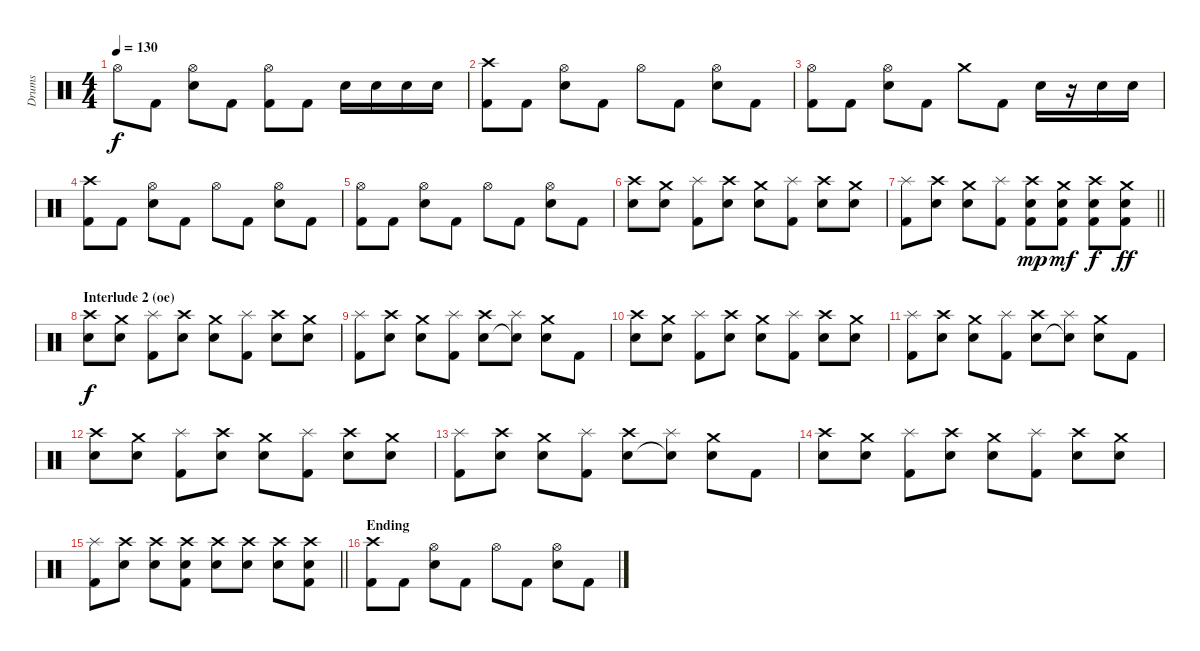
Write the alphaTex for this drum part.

\track ("Drums" "Drums") {instrument percussion}
\staff {score}
\articulation defaults
\ts (4 4)
\tempo 130
\clef neutral
\ks c "Hi-Hat (open)".8{dy f} "Kick (hit) 2".8
("Hi-Hat (open)" "Electric Snare (hit)").8 "Kick (hit) 2".8 ("Hi-Hat (open)" "Kick (hit) 2").8 "Kick (hit) 2".8 "Electric Snare (hit)".16 "Electric Snare (hit)".16 "Electric Snare (hit)".16 "Electric Snare (hit)".16 |
("Crash high (hit)" "Kick (hit) 2").8 "Kick (hit) 2".8 ("Hi-Hat (open)" "Electric Snare (hit)").8 "Kick (hit) 2".8 "Hi-Hat (open)".8 "Kick (hit) 2".8 ("Hi-Hat (open)" "Electric Snare (hit)").8 "Kick (hit) 2".8 |
("Hi-Hat (open)" "Kick (hit) 2").8 "Kick (hit) 2".8 ("Hi-Hat (open)" "Electric Snare (hit)").8 "Kick (hit) 2".8 "Crash medium (hit)".8 "Kick (hit) 2".8 "Electric Snare (hit)".16 r.16 "Electric Snare (hit)".16 "Electric Snare (hit)".16 |
("Crash high (hit)" "Kick (hit) 2").8 "Kick (hit) 2".8 ("Hi-Hat (open)" "Electric Snare (hit)").8 "Kick (hit) 2".8 "Hi-Hat (open)".8 "Kick (hit) 2".8 ("Hi-Hat (open)" "Electric Snare (hit)").8 "Kick (hit) 2".8 |
("Hi-Hat (open)" "Kick (hit) 2").8 "Kick (hit) 2".8 ("Hi-Hat (open)" "Electric Snare (hit)").8 "Kick (hit) 2".8 "Hi-Hat (open)".8 "Kick (hit) 2".8 ("Hi-Hat (open)" "Electric Snare (hit)").8 "Kick (hit) 2".8 |
("Crash high (hit)" "Electric Snare (hit)").8 ("Crash medium (hit)" "Electric Snare (hit)").8 ("Splash (hit)" "Kick (hit) 2").8 ("Crash high (hit)" "Electric Snare (hit)").8 ("Crash medium (hit)" "Electric Snare (hit)").8 ("Splash (hit)" "Kick (hit) 2").8 ("Crash high (hit)" "Electric Snare (hit)").8 ("Crash medium (hit)" "Electric Snare (hit)").8 |
\barLineRight lightlight
("Splash (hit)" "Kick (hit) 2").8 ("Crash high (hit)" "Electric Snare (hit)").8 ("Crash medium (hit)" "Electric Snare (hit)").8 ("Splash (hit)" "Kick (hit) 2").8 ("Crash high (hit)" "Electric Snare (hit)" "Kick (hit) 2").8{dy mp} ("Crash medium (hit)" "Electric Snare (hit)" "Kick (hit) 2").8{dy mf} ("Crash high (hit)" "Electric Snare (hit)" "Kick (hit) 2").8{dy f} ("Crash medium (hit)" "Electric Snare (hit)" "Kick (hit) 2").8{dy ff} |
\section ("" "Interlude 2 (oe)")
("Crash high (hit)" "Electric Snare (hit)").8{dy f} ("Crash medium (hit)" "Electric Snare (hit)").8 ("Splash (hit)" "Kick (hit) 2").8 ("Crash high (hit)" "Electric Snare (hit)").8 ("Crash medium (hit)" "Electric Snare (hit)").8 ("Splash (hit)" "Kick (hit) 2").8 ("Crash high (hit)" "Electric Snare (hit)").8 ("Crash medium (hit)" "Electric Snare (hit)").8 |
("Splash (hit)" "Kick (hit) 2").8 ("Crash high (hit)" "Electric Snare (hit)").8 ("Crash medium (hit)" "Electric Snare (hit)").8 ("Splash (hit)" "Kick (hit) 2").8 ("Crash high (hit)" "Electric Snare (hit)").8 ("Splash (hit)" "Snare (hit)"{t}).8 ("Crash medium (hit)" "Electric Snare (hit)").8 "Kick (hit) 2".8 |
("Crash high (hit)" "Electric Snare (hit)").8 ("Crash medium (hit)" "Electric Snare (hit)").8 ("Splash (hit)" "Kick (hit) 2").8 ("Crash high (hit)" "Electric Snare (hit)").8 ("Crash medium (hit)" "Electric Snare (hit)").8 ("Splash (hit)" "Kick (hit) 2").8 ("Crash high (hit)" "Electric Snare (hit)").8 ("Crash medium (hit)" "Electric Snare (hit)").8 |
("Splash (hit)" "Kick (hit) 2").8 ("Crash high (hit)" "Electric Snare (hit)").8 ("Crash medium (hit)" "Electric Snare (hit)").8 ("Splash (hit)" "Kick (hit) 2").8 ("Crash high (hit)" "Electric Snare (hit)").8 ("Splash (hit)" "Snare (hit)"{t}).8 ("Crash medium (hit)" "Electric Snare (hit)").8 "Kick (hit) 2".8 |
("Crash high (hit)" "Electric Snare (hit)").8 ("Crash medium (hit)" "Electric Snare (hit)").8 ("Splash (hit)" "Kick (hit) 2").8 ("Crash high (hit)" "Electric Snare (hit)").8 ("Crash medium (hit)" "Electric Snare (hit)").8 ("Splash (hit)" "Kick (hit) 2").8 ("Crash high (hit)" "Electric Snare (hit)").8 ("Crash medium (hit)" "Electric Snare (hit)").8 |
("Splash (hit)" "Kick (hit) 2").8 ("Crash high (hit)" "Electric Snare (hit)").8 ("Crash medium (hit)" "Electric Snare (hit)").8 ("Splash (hit)" "Kick (hit) 2").8 ("Crash high (hit)" "Electric Snare (hit)").8 ("Splash (hit)" "Snare (hit)"{t}).8 ("Crash medium (hit)" "Electric Snare (hit)").8 "Kick (hit) 2".8 |
("Crash high (hit)" "Electric Snare (hit)").8 ("Crash medium (hit)" "Electric Snare (hit)").8 ("Splash (hit)" "Kick (hit) 2").8 ("Crash high (hit)" "Electric Snare (hit)").8 ("Crash medium (hit)" "Electric Snare (hit)").8 ("Splash (hit)" "Kick (hit) 2").8 ("Crash high (hit)" "Electric Snare (hit)").8 ("Crash medium (hit)" "Electric Snare (hit)").8 |
\barLineRight lightlight
("Splash (hit)" "Kick (hit) 2").8 ("Crash high (hit)" "Electric Snare (hit)").8 ("Crash high (hit)" "Electric Snare (hit)").8 ("Crash high (hit)" "Electric Snare (hit)" "Kick (hit) 2").8 ("Crash high (hit)" "Electric Snare (hit)").8 ("Crash high (hit)" "Electric Snare (hit)").8 ("Crash high (hit)" "Electric Snare (hit)").8 ("Crash high (hit)" "Electric Snare (hit)" "Kick (hit) 2").8 |
\section ("" "Ending")
("Crash high (hit)" "Kick (hit) 2").8 "Kick (hit) 2".8 ("Hi-Hat (open)" "Electric Snare (hit)").8 "Kick (hit) 2".8 "Hi-Hat (open)".8 "Kick (hit) 2".8 ("Hi-Hat (open)" "Electric Snare (hit)").8 "Kick (hit) 2".8
